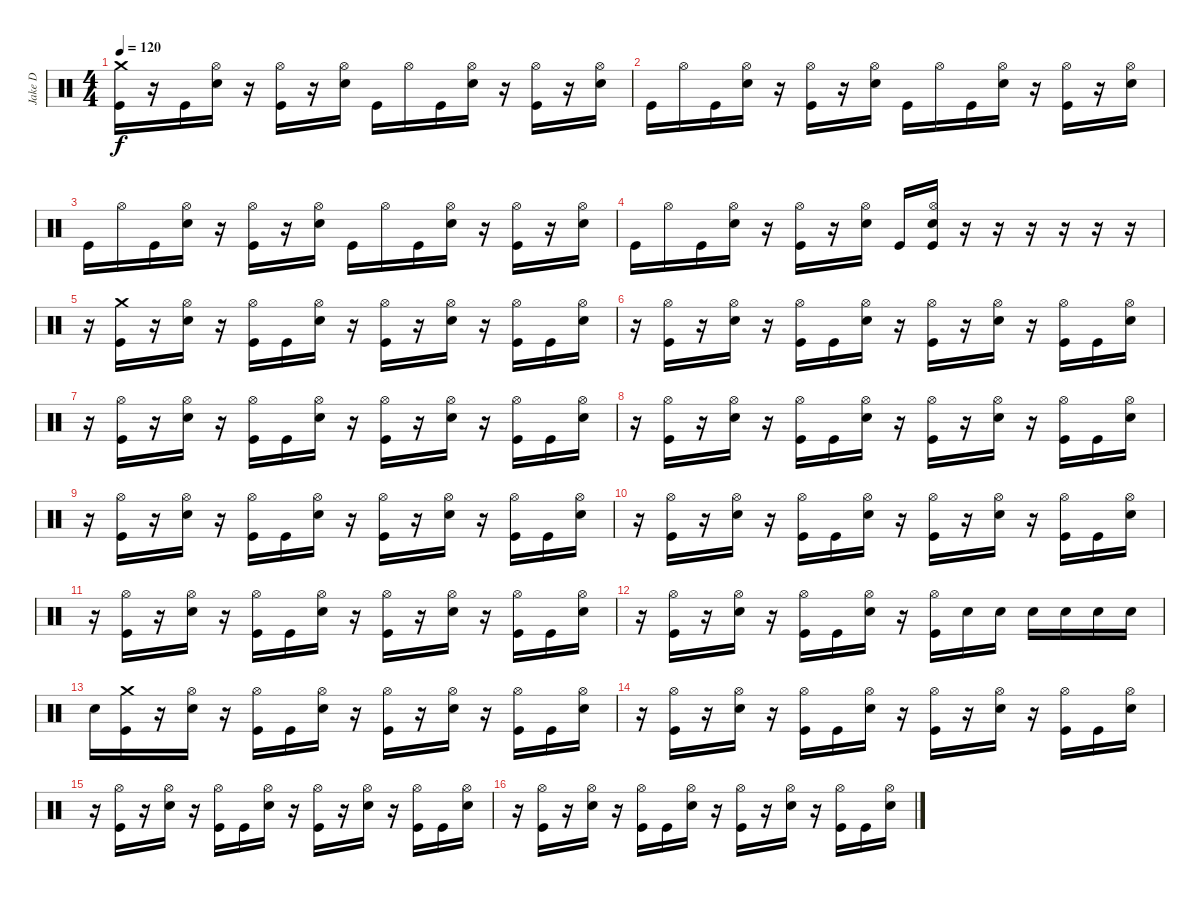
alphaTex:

\track ("Jake D" "Jake D") {instrument percussion}
\staff {score}
\articulation defaults
\ts (4 4)
\tempo 120
\clef neutral
\ks c
("Crash medium (hit)" "Kick (hit)").16{dy f} r.16 "Kick (hit)".16 ("Hi-Hat (open)" "Electric Snare (hit)").16 r.16 ("Hi-Hat (open)" "Kick (hit)").16 r.16 ("Hi-Hat (open)" "Electric Snare (hit)").16 "Kick (hit)".16 "Hi-Hat (open)".16 "Kick (hit)".16 ("Hi-Hat (open)" "Electric Snare (hit)").16 r.16 ("Hi-Hat (open)" "Kick (hit)").16 r.16 ("Hi-Hat (open)" "Electric Snare (hit)").16 |
"Kick (hit)".16 "Hi-Hat (open)".16 "Kick (hit)".16 ("Hi-Hat (open)" "Electric Snare (hit)").16 r.16 ("Hi-Hat (open)" "Kick (hit)").16 r.16 ("Hi-Hat (open)" "Electric Snare (hit)").16 "Kick (hit)".16 "Hi-Hat (open)".16 "Kick (hit)".16 ("Hi-Hat (open)" "Electric Snare (hit)").16 r.16 ("Hi-Hat (open)" "Kick (hit)").16 r.16 ("Hi-Hat (open)" "Electric Snare (hit)").16 |
"Kick (hit)".16 "Hi-Hat (open)".16 "Kick (hit)".16 ("Hi-Hat (open)" "Electric Snare (hit)").16 r.16 ("Hi-Hat (open)" "Kick (hit)").16 r.16 ("Hi-Hat (open)" "Electric Snare (hit)").16 "Kick (hit)".16 "Hi-Hat (open)".16 "Kick (hit)".16 ("Hi-Hat (open)" "Electric Snare (hit)").16 r.16 ("Hi-Hat (open)" "Kick (hit)").16 r.16 ("Hi-Hat (open)" "Electric Snare (hit)").16 |
"Kick (hit)".16 "Hi-Hat (open)".16 "Kick (hit)".16 ("Hi-Hat (open)" "Electric Snare (hit)").16 r.16 ("Hi-Hat (open)" "Kick (hit)").16 r.16 ("Hi-Hat (open)" "Electric Snare (hit)").16 "Kick (hit)".16 ("Hi-Hat (open)" "Electric Snare (hit)" "Kick (hit)").16 r.16 r.16 r.16 r.16 r.16 r.16 |
r.16 ("Crash medium (hit)" "Kick (hit)").16 r.16 ("Hi-Hat (open)" "Electric Snare (hit)").16 r.16 ("Hi-Hat (open)" "Kick (hit)").16 "Kick (hit)".16 ("Hi-Hat (open)" "Electric Snare (hit)").16 r.16 ("Hi-Hat (open)" "Kick (hit)").16 r.16 ("Hi-Hat (open)" "Electric Snare (hit)").16 r.16 ("Hi-Hat (open)" "Kick (hit)").16 "Kick (hit)".16 ("Hi-Hat (open)" "Electric Snare (hit)").16 |
r.16 ("Hi-Hat (open)" "Kick (hit)").16 r.16 ("Hi-Hat (open)" "Electric Snare (hit)").16 r.16 ("Hi-Hat (open)" "Kick (hit)").16 "Kick (hit)".16 ("Hi-Hat (open)" "Electric Snare (hit)").16 r.16 ("Hi-Hat (open)" "Kick (hit)").16 r.16 ("Hi-Hat (open)" "Electric Snare (hit)").16 r.16 ("Hi-Hat (open)" "Kick (hit)").16 "Kick (hit)".16 ("Hi-Hat (open)" "Electric Snare (hit)").16 |
r.16 ("Hi-Hat (open)" "Kick (hit)").16 r.16 ("Hi-Hat (open)" "Electric Snare (hit)").16 r.16 ("Hi-Hat (open)" "Kick (hit)").16 "Kick (hit)".16 ("Hi-Hat (open)" "Electric Snare (hit)").16 r.16 ("Hi-Hat (open)" "Kick (hit)").16 r.16 ("Hi-Hat (open)" "Electric Snare (hit)").16 r.16 ("Hi-Hat (open)" "Kick (hit)").16 "Kick (hit)".16 ("Hi-Hat (open)" "Electric Snare (hit)").16 |
r.16 ("Hi-Hat (open)" "Kick (hit)").16 r.16 ("Hi-Hat (open)" "Electric Snare (hit)").16 r.16 ("Hi-Hat (open)" "Kick (hit)").16 "Kick (hit)".16 ("Hi-Hat (open)" "Electric Snare (hit)").16 r.16 ("Hi-Hat (open)" "Kick (hit)").16 r.16 ("Hi-Hat (open)" "Electric Snare (hit)").16 r.16 ("Hi-Hat (open)" "Kick (hit)").16 "Kick (hit)".16 ("Hi-Hat (open)" "Electric Snare (hit)").16 |
r.16 ("Hi-Hat (open)" "Kick (hit)").16 r.16 ("Hi-Hat (open)" "Electric Snare (hit)").16 r.16 ("Hi-Hat (open)" "Kick (hit)").16 "Kick (hit)".16 ("Hi-Hat (open)" "Electric Snare (hit)").16 r.16 ("Hi-Hat (open)" "Kick (hit)").16 r.16 ("Hi-Hat (open)" "Electric Snare (hit)").16 r.16 ("Hi-Hat (open)" "Kick (hit)").16 "Kick (hit)".16 ("Hi-Hat (open)" "Electric Snare (hit)").16 |
r.16 ("Hi-Hat (open)" "Kick (hit)").16 r.16 ("Hi-Hat (open)" "Electric Snare (hit)").16 r.16 ("Hi-Hat (open)" "Kick (hit)").16 "Kick (hit)".16 ("Hi-Hat (open)" "Electric Snare (hit)").16 r.16 ("Hi-Hat (open)" "Kick (hit)").16 r.16 ("Hi-Hat (open)" "Electric Snare (hit)").16 r.16 ("Hi-Hat (open)" "Kick (hit)").16 "Kick (hit)".16 ("Hi-Hat (open)" "Electric Snare (hit)").16 |
r.16 ("Hi-Hat (open)" "Kick (hit)").16 r.16 ("Hi-Hat (open)" "Electric Snare (hit)").16 r.16 ("Hi-Hat (open)" "Kick (hit)").16 "Kick (hit)".16 ("Hi-Hat (open)" "Electric Snare (hit)").16 r.16 ("Hi-Hat (open)" "Kick (hit)").16 r.16 ("Hi-Hat (open)" "Electric Snare (hit)").16 r.16 ("Hi-Hat (open)" "Kick (hit)").16 "Kick (hit)".16 ("Hi-Hat (open)" "Electric Snare (hit)").16 |
r.16 ("Hi-Hat (open)" "Kick (hit)").16 r.16 ("Hi-Hat (open)" "Electric Snare (hit)").16 r.16 ("Hi-Hat (open)" "Kick (hit)").16 "Kick (hit)".16 ("Hi-Hat (open)" "Electric Snare (hit)").16 r.16 ("Hi-Hat (open)" "Kick (hit)").16 "Electric Snare (hit)".16 "Electric Snare (hit)".16 "Electric Snare (hit)".16 "Electric Snare (hit)".16 "Electric Snare (hit)".16 "Electric Snare (hit)".16 |
"Electric Snare (hit)".16 ("Crash medium (hit)" "Kick (hit)").16 r.16 ("Hi-Hat (open)" "Electric Snare (hit)").16 r.16 ("Hi-Hat (open)" "Kick (hit)").16 "Kick (hit)".16 ("Hi-Hat (open)" "Electric Snare (hit)").16 r.16 ("Hi-Hat (open)" "Kick (hit)").16 r.16 ("Hi-Hat (open)" "Electric Snare (hit)").16 r.16 ("Hi-Hat (open)" "Kick (hit)").16 "Kick (hit)".16 ("Hi-Hat (open)" "Electric Snare (hit)").16 |
r.16 ("Hi-Hat (open)" "Kick (hit)").16 r.16 ("Hi-Hat (open)" "Electric Snare (hit)").16 r.16 ("Hi-Hat (open)" "Kick (hit)").16 "Kick (hit)".16 ("Hi-Hat (open)" "Electric Snare (hit)").16 r.16 ("Hi-Hat (open)" "Kick (hit)").16 r.16 ("Hi-Hat (open)" "Electric Snare (hit)").16 r.16 ("Hi-Hat (open)" "Kick (hit)").16 "Kick (hit)".16 ("Hi-Hat (open)" "Electric Snare (hit)").16 |
r.16 ("Hi-Hat (open)" "Kick (hit)").16 r.16 ("Hi-Hat (open)" "Electric Snare (hit)").16 r.16 ("Hi-Hat (open)" "Kick (hit)").16 "Kick (hit)".16 ("Hi-Hat (open)" "Electric Snare (hit)").16 r.16 ("Hi-Hat (open)" "Kick (hit)").16 r.16 ("Hi-Hat (open)" "Electric Snare (hit)").16 r.16 ("Hi-Hat (open)" "Kick (hit)").16 "Kick (hit)".16 ("Hi-Hat (open)" "Electric Snare (hit)").16 |
r.16 ("Hi-Hat (open)" "Kick (hit)").16 r.16 ("Hi-Hat (open)" "Electric Snare (hit)").16 r.16 ("Hi-Hat (open)" "Kick (hit)").16 "Kick (hit)".16 ("Hi-Hat (open)" "Electric Snare (hit)").16 r.16 ("Hi-Hat (open)" "Kick (hit)").16 r.16 ("Hi-Hat (open)" "Electric Snare (hit)").16 r.16 ("Hi-Hat (open)" "Kick (hit)").16 "Kick (hit)".16 ("Hi-Hat (open)" "Electric Snare (hit)").16
